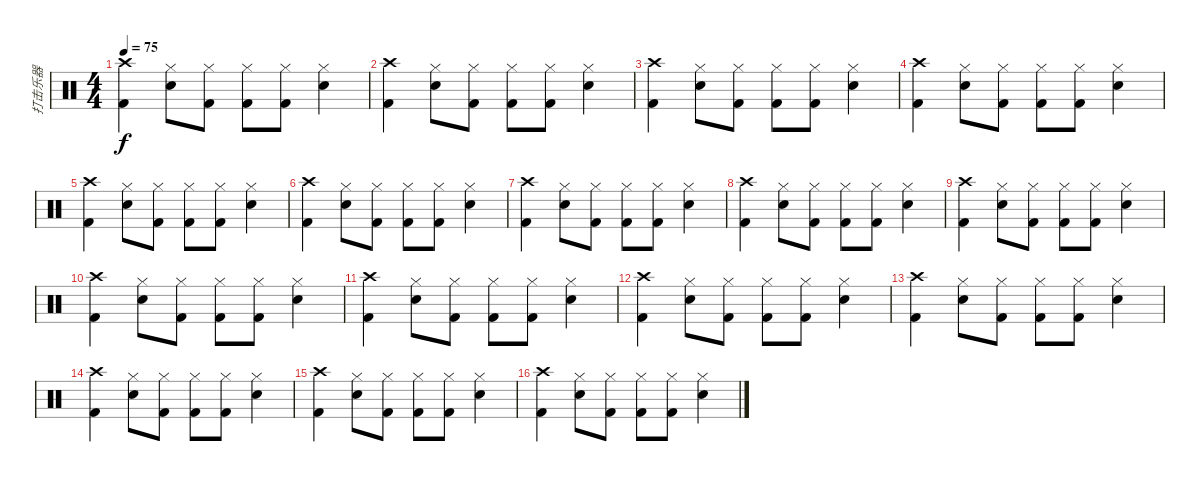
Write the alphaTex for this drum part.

\track ("打击乐器" "打击乐器") {instrument percussion}
\staff {score}
\articulation defaults
\ts (4 4)
\tempo 75
\clef neutral
\ks c
("Kick (hit) 2" "Crash high (hit)").4{dy f} ("Hi-Hat (closed)" "Electric Snare (hit)").8 ("Hi-Hat (closed)" "Kick (hit) 2").8 ("Hi-Hat (closed)" "Kick (hit) 2").8 ("Hi-Hat (closed)" "Kick (hit) 2").8 ("Hi-Hat (closed)" "Electric Snare (hit)").4 |
("Kick (hit) 2" "Crash high (hit)").4 ("Hi-Hat (closed)" "Electric Snare (hit)").8 ("Hi-Hat (closed)" "Kick (hit) 2").8 ("Hi-Hat (closed)" "Kick (hit) 2").8 ("Hi-Hat (closed)" "Kick (hit) 2").8 ("Hi-Hat (closed)" "Electric Snare (hit)").4 |
("Kick (hit) 2" "Crash high (hit)").4 ("Hi-Hat (closed)" "Electric Snare (hit)").8 ("Hi-Hat (closed)" "Kick (hit) 2").8 ("Hi-Hat (closed)" "Kick (hit) 2").8 ("Hi-Hat (closed)" "Kick (hit) 2").8 ("Hi-Hat (closed)" "Electric Snare (hit)").4 |
("Kick (hit) 2" "Crash high (hit)").4 ("Hi-Hat (closed)" "Electric Snare (hit)").8 ("Hi-Hat (closed)" "Kick (hit) 2").8 ("Hi-Hat (closed)" "Kick (hit) 2").8 ("Hi-Hat (closed)" "Kick (hit) 2").8 ("Hi-Hat (closed)" "Electric Snare (hit)").4 |
("Kick (hit) 2" "Crash high (hit)").4 ("Hi-Hat (closed)" "Electric Snare (hit)").8 ("Hi-Hat (closed)" "Kick (hit) 2").8 ("Hi-Hat (closed)" "Kick (hit) 2").8 ("Hi-Hat (closed)" "Kick (hit) 2").8 ("Hi-Hat (closed)" "Electric Snare (hit)").4 |
("Kick (hit) 2" "Crash high (hit)").4 ("Hi-Hat (closed)" "Electric Snare (hit)").8 ("Hi-Hat (closed)" "Kick (hit) 2").8 ("Hi-Hat (closed)" "Kick (hit) 2").8 ("Hi-Hat (closed)" "Kick (hit) 2").8 ("Hi-Hat (closed)" "Electric Snare (hit)").4 |
("Kick (hit) 2" "Crash high (hit)").4 ("Hi-Hat (closed)" "Electric Snare (hit)").8 ("Hi-Hat (closed)" "Kick (hit) 2").8 ("Hi-Hat (closed)" "Kick (hit) 2").8 ("Hi-Hat (closed)" "Kick (hit) 2").8 ("Hi-Hat (closed)" "Electric Snare (hit)").4 |
("Kick (hit) 2" "Crash high (hit)").4 ("Hi-Hat (closed)" "Electric Snare (hit)").8 ("Hi-Hat (closed)" "Kick (hit) 2").8 ("Hi-Hat (closed)" "Kick (hit) 2").8 ("Hi-Hat (closed)" "Kick (hit) 2").8 ("Hi-Hat (closed)" "Electric Snare (hit)").4 |
("Kick (hit) 2" "Crash high (hit)").4 ("Hi-Hat (closed)" "Electric Snare (hit)").8 ("Hi-Hat (closed)" "Kick (hit) 2").8 ("Hi-Hat (closed)" "Kick (hit) 2").8 ("Hi-Hat (closed)" "Kick (hit) 2").8 ("Hi-Hat (closed)" "Electric Snare (hit)").4 |
("Kick (hit) 2" "Crash high (hit)").4 ("Hi-Hat (closed)" "Electric Snare (hit)").8 ("Hi-Hat (closed)" "Kick (hit) 2").8 ("Hi-Hat (closed)" "Kick (hit) 2").8 ("Hi-Hat (closed)" "Kick (hit) 2").8 ("Hi-Hat (closed)" "Electric Snare (hit)").4 |
("Kick (hit) 2" "Crash high (hit)").4 ("Hi-Hat (closed)" "Electric Snare (hit)").8 ("Hi-Hat (closed)" "Kick (hit) 2").8 ("Hi-Hat (closed)" "Kick (hit) 2").8 ("Hi-Hat (closed)" "Kick (hit) 2").8 ("Hi-Hat (closed)" "Electric Snare (hit)").4 |
("Kick (hit) 2" "Crash high (hit)").4 ("Hi-Hat (closed)" "Electric Snare (hit)").8 ("Hi-Hat (closed)" "Kick (hit) 2").8 ("Hi-Hat (closed)" "Kick (hit) 2").8 ("Hi-Hat (closed)" "Kick (hit) 2").8 ("Hi-Hat (closed)" "Electric Snare (hit)").4 |
("Kick (hit) 2" "Crash high (hit)").4 ("Hi-Hat (closed)" "Electric Snare (hit)").8 ("Hi-Hat (closed)" "Kick (hit) 2").8 ("Hi-Hat (closed)" "Kick (hit) 2").8 ("Hi-Hat (closed)" "Kick (hit) 2").8 ("Hi-Hat (closed)" "Electric Snare (hit)").4 |
("Kick (hit) 2" "Crash high (hit)").4 ("Hi-Hat (closed)" "Electric Snare (hit)").8 ("Hi-Hat (closed)" "Kick (hit) 2").8 ("Hi-Hat (closed)" "Kick (hit) 2").8 ("Hi-Hat (closed)" "Kick (hit) 2").8 ("Hi-Hat (closed)" "Electric Snare (hit)").4 |
("Kick (hit) 2" "Crash high (hit)").4 ("Hi-Hat (closed)" "Electric Snare (hit)").8 ("Hi-Hat (closed)" "Kick (hit) 2").8 ("Hi-Hat (closed)" "Kick (hit) 2").8 ("Hi-Hat (closed)" "Kick (hit) 2").8 ("Hi-Hat (closed)" "Electric Snare (hit)").4 |
("Kick (hit) 2" "Crash high (hit)").4 ("Hi-Hat (closed)" "Electric Snare (hit)").8 ("Hi-Hat (closed)" "Kick (hit) 2").8 ("Hi-Hat (closed)" "Kick (hit) 2").8 ("Hi-Hat (closed)" "Kick (hit) 2").8 ("Hi-Hat (closed)" "Electric Snare (hit)").4
